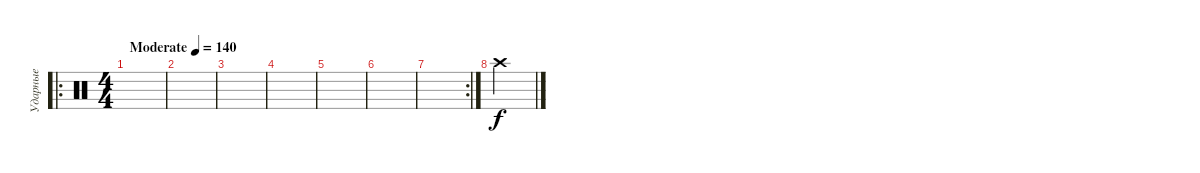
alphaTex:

\track ("Ударные" "Ударные") {instrument percussion}
\staff {score}
\articulation defaults
\ro
\ts (4 4)
\tempo (140 "Moderate")
\clef neutral
\ks c
|
|
|
|
|
|
\rc 2
|
"Crash high (hit)".4
